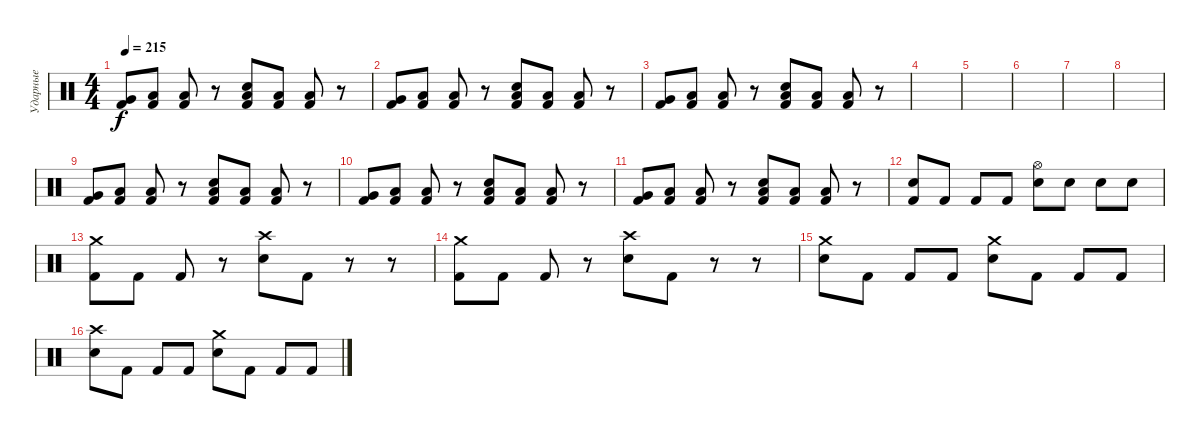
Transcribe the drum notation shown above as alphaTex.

\track ("Ударные" "Ударные") {instrument percussion}
\staff {score}
\articulation defaults
\ts (4 4)
\tempo 215
\clef neutral
\ks c
("Kick (hit) 2" "Very Low Tom (hit)").8{dy f} ("Kick (hit) 2" "Low Floor Tom (hit)").8 ("Kick (hit) 2" "Low Floor Tom (hit)").8 r.8 ("Kick (hit) 2" "Electric Snare (hit)" "Low Floor Tom (hit)").8 ("Kick (hit) 2" "Low Floor Tom (hit)").8 ("Kick (hit) 2" "Low Floor Tom (hit)").8 r.8 |
("Kick (hit) 2" "Very Low Tom (hit)").8 ("Kick (hit) 2" "Low Floor Tom (hit)").8 ("Kick (hit) 2" "Low Floor Tom (hit)").8 r.8 ("Kick (hit) 2" "Electric Snare (hit)" "Low Floor Tom (hit)").8 ("Kick (hit) 2" "Low Floor Tom (hit)").8 ("Kick (hit) 2" "Low Floor Tom (hit)").8 r.8 |
("Kick (hit) 2" "Very Low Tom (hit)").8 ("Kick (hit) 2" "Low Floor Tom (hit)").8 ("Kick (hit) 2" "Low Floor Tom (hit)").8 r.8 ("Kick (hit) 2" "Electric Snare (hit)" "Low Floor Tom (hit)").8 ("Kick (hit) 2" "Low Floor Tom (hit)").8 ("Kick (hit) 2" "Low Floor Tom (hit)").8 r.8 |
|
|
|
|
|
("Kick (hit) 2" "Very Low Tom (hit)").8 ("Kick (hit) 2" "Low Floor Tom (hit)").8 ("Kick (hit) 2" "Low Floor Tom (hit)").8 r.8 ("Kick (hit) 2" "Electric Snare (hit)" "Low Floor Tom (hit)").8 ("Kick (hit) 2" "Low Floor Tom (hit)").8 ("Kick (hit) 2" "Low Floor Tom (hit)").8 r.8 |
("Kick (hit) 2" "Very Low Tom (hit)").8 ("Kick (hit) 2" "Low Floor Tom (hit)").8 ("Kick (hit) 2" "Low Floor Tom (hit)").8 r.8 ("Kick (hit) 2" "Electric Snare (hit)" "Low Floor Tom (hit)").8 ("Kick (hit) 2" "Low Floor Tom (hit)").8 ("Kick (hit) 2" "Low Floor Tom (hit)").8 r.8 |
("Kick (hit) 2" "Very Low Tom (hit)").8 ("Kick (hit) 2" "Low Floor Tom (hit)").8 ("Kick (hit) 2" "Low Floor Tom (hit)").8 r.8 ("Kick (hit) 2" "Electric Snare (hit)" "Low Floor Tom (hit)").8 ("Kick (hit) 2" "Low Floor Tom (hit)").8 ("Kick (hit) 2" "Low Floor Tom (hit)").8 r.8 |
("Kick (hit) 2" "Electric Snare (hit)").8 "Kick (hit) 2".8 "Kick (hit) 2".8 "Kick (hit) 2".8 ("Hi-Hat (open)" "Electric Snare (hit)").8 "Electric Snare (hit)".8 "Electric Snare (hit)".8 "Electric Snare (hit)".8 |
("Crash medium (hit)" "Kick (hit) 2").8 "Kick (hit) 2".8 "Kick (hit) 2".8 r.8 ("Crash high (hit)" "Electric Snare (hit)").8 "Kick (hit) 2".8 r.8 r.8 |
("Crash medium (hit)" "Kick (hit) 2").8 "Kick (hit) 2".8 "Kick (hit) 2".8 r.8 ("Crash high (hit)" "Electric Snare (hit)").8 "Kick (hit) 2".8 r.8 r.8 |
("Crash medium (hit)" "Electric Snare (hit)").8 "Kick (hit) 2".8 "Kick (hit) 2".8 "Kick (hit) 2".8 ("Crash medium (hit)" "Electric Snare (hit)").8 "Kick (hit) 2".8 "Kick (hit) 2".8 "Kick (hit) 2".8 |
("Crash high (hit)" "Electric Snare (hit)").8 "Kick (hit) 2".8 "Kick (hit) 2".8 "Kick (hit) 2".8 ("Crash medium (hit)" "Electric Snare (hit)").8 "Kick (hit) 2".8 "Kick (hit) 2".8 "Kick (hit) 2".8
